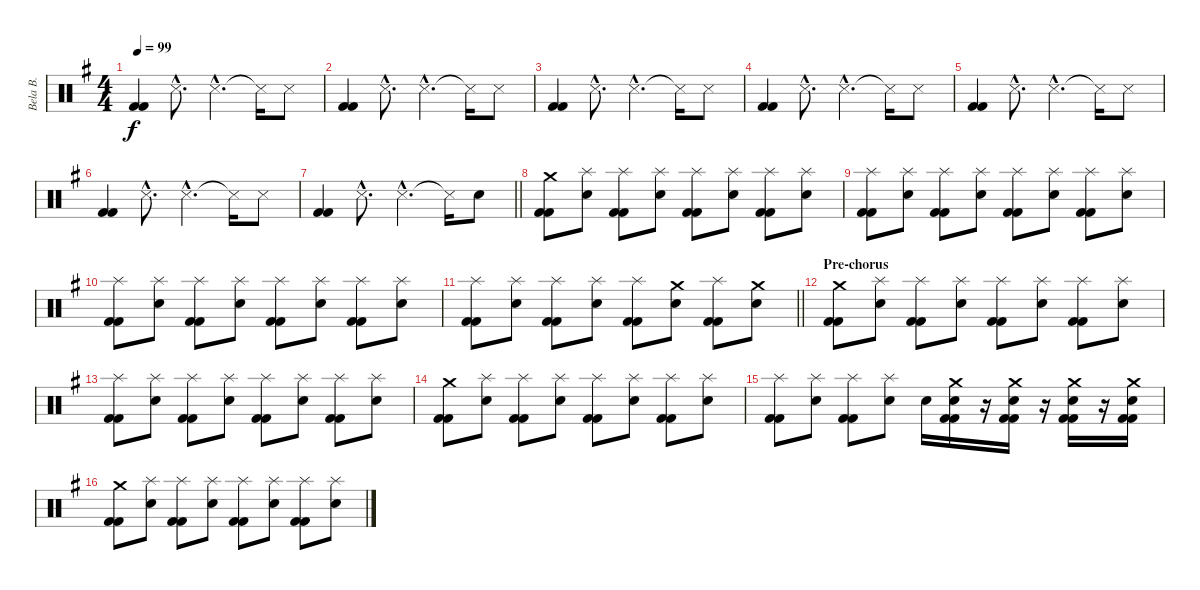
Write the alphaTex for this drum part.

\track ("Bela B." "Bela B.") {instrument percussion}
\staff {score}
\articulation defaults
\ts (4 4)
\tempo 99
\clef neutral
\ks g
("Kick (hit) 2" "Kick (hit) 2").4{dy f} "Snare (side stick) 3"{hac}.8{d} "Snare (side stick) 3"{hac}.4{d} "Snare (side stick) 3"{t}.16 "Snare (side stick) 3".8 |
("Kick (hit) 2" "Kick (hit) 2").4 "Snare (side stick) 3"{hac}.8{d} "Snare (side stick) 3"{hac}.4{d} "Snare (side stick) 3"{t}.16 "Snare (side stick) 3".8 |
("Kick (hit) 2" "Kick (hit) 2").4 "Snare (side stick) 3"{hac}.8{d} "Snare (side stick) 3"{hac}.4{d} "Snare (side stick) 3"{t}.16 "Snare (side stick) 3".8 |
("Kick (hit) 2" "Kick (hit) 2").4 "Snare (side stick) 3"{hac}.8{d} "Snare (side stick) 3"{hac}.4{d} "Snare (side stick) 3"{t}.16 "Snare (side stick) 3".8 |
("Kick (hit) 2" "Kick (hit) 2").4 "Snare (side stick) 3"{hac}.8{d} "Snare (side stick) 3"{hac}.4{d} "Snare (side stick) 3"{t}.16 "Snare (side stick) 3".8 |
("Kick (hit) 2" "Kick (hit) 2").4 "Snare (side stick) 3"{hac}.8{d} "Snare (side stick) 3"{hac}.4{d} "Snare (side stick) 3"{t}.16 "Snare (side stick) 3".8 |
\barLineRight lightlight
("Kick (hit) 2" "Kick (hit) 2").4 "Snare (side stick) 3"{hac}.8{d} "Snare (side stick) 3"{hac}.4{d} "Snare (side stick) 3"{t}.16 "Electric Snare (hit)".8 |
("Crash medium (hit)" "Kick (hit) 2" "Kick (hit) 2").8 ("Splash (hit)" "Electric Snare (hit)").8 ("Splash (hit)" "Kick (hit) 2" "Kick (hit) 2").8 ("Splash (hit)" "Electric Snare (hit)").8 ("Splash (hit)" "Kick (hit) 2" "Kick (hit) 2").8 ("Splash (hit)" "Electric Snare (hit)").8 ("Splash (hit)" "Kick (hit) 2" "Kick (hit) 2").8 ("Splash (hit)" "Electric Snare (hit)").8 |
("Splash (hit)" "Kick (hit) 2" "Kick (hit) 2").8 ("Splash (hit)" "Electric Snare (hit)").8 ("Splash (hit)" "Kick (hit) 2" "Kick (hit) 2").8 ("Splash (hit)" "Electric Snare (hit)").8 ("Splash (hit)" "Kick (hit) 2" "Kick (hit) 2").8 ("Splash (hit)" "Electric Snare (hit)").8 ("Splash (hit)" "Kick (hit) 2" "Kick (hit) 2").8 ("Splash (hit)" "Electric Snare (hit)").8 |
("Splash (hit)" "Kick (hit) 2" "Kick (hit) 2").8 ("Splash (hit)" "Electric Snare (hit)").8 ("Splash (hit)" "Kick (hit) 2" "Kick (hit) 2").8 ("Splash (hit)" "Electric Snare (hit)").8 ("Splash (hit)" "Kick (hit) 2" "Kick (hit) 2").8 ("Splash (hit)" "Electric Snare (hit)").8 ("Splash (hit)" "Kick (hit) 2" "Kick (hit) 2").8 ("Splash (hit)" "Electric Snare (hit)").8 |
\barLineRight lightlight
("Splash (hit)" "Kick (hit) 2" "Kick (hit) 2").8 ("Splash (hit)" "Electric Snare (hit)").8 ("Splash (hit)" "Kick (hit) 2" "Kick (hit) 2").8 ("Splash (hit)" "Electric Snare (hit)").8 ("Splash (hit)" "Kick (hit) 2" "Kick (hit) 2").8 ("Crash medium (hit)" "Electric Snare (hit)").8 ("Splash (hit)" "Kick (hit) 2" "Kick (hit) 2").8 ("Crash medium (hit)" "Electric Snare (hit)").8 |
\section ("" "Pre-chorus")
("Crash medium (hit)" "Kick (hit) 2" "Kick (hit) 2").8 ("Splash (hit)" "Electric Snare (hit)").8 ("Splash (hit)" "Kick (hit) 2" "Kick (hit) 2").8 ("Splash (hit)" "Electric Snare (hit)").8 ("Splash (hit)" "Kick (hit) 2" "Kick (hit) 2").8 ("Splash (hit)" "Electric Snare (hit)").8 ("Splash (hit)" "Kick (hit) 2" "Kick (hit) 2").8 ("Splash (hit)" "Electric Snare (hit)").8 |
("Splash (hit)" "Kick (hit) 2" "Kick (hit) 2").8 ("Splash (hit)" "Electric Snare (hit)").8 ("Splash (hit)" "Kick (hit) 2" "Kick (hit) 2").8 ("Splash (hit)" "Electric Snare (hit)").8 ("Splash (hit)" "Kick (hit) 2" "Kick (hit) 2").8 ("Splash (hit)" "Electric Snare (hit)").8 ("Splash (hit)" "Kick (hit) 2" "Kick (hit) 2").8 ("Splash (hit)" "Electric Snare (hit)").8 |
("Crash medium (hit)" "Kick (hit) 2" "Kick (hit) 2").8 ("Splash (hit)" "Electric Snare (hit)").8 ("Splash (hit)" "Kick (hit) 2" "Kick (hit) 2").8 ("Splash (hit)" "Electric Snare (hit)").8 ("Splash (hit)" "Kick (hit) 2" "Kick (hit) 2").8 ("Splash (hit)" "Electric Snare (hit)").8 ("Splash (hit)" "Kick (hit) 2" "Kick (hit) 2").8 ("Splash (hit)" "Electric Snare (hit)").8 |
("Splash (hit)" "Kick (hit) 2" "Kick (hit) 2").8 ("Splash (hit)" "Electric Snare (hit)").8 ("Splash (hit)" "Kick (hit) 2" "Kick (hit) 2").8 ("Splash (hit)" "Electric Snare (hit)").8 "Electric Snare (hit)".16 ("Crash medium (hit)" "Electric Snare (hit)" "Kick (hit) 2" "Kick (hit) 2").16 r.16 ("Crash medium (hit)" "Electric Snare (hit)" "Kick (hit) 2" "Kick (hit) 2").16 r.16 ("Crash medium (hit)" "Electric Snare (hit)" "Kick (hit) 2" "Kick (hit) 2").16 r.16 ("Crash medium (hit)" "Electric Snare (hit)" "Kick (hit) 2" "Kick (hit) 2").16 |
("Crash medium (hit)" "Kick (hit) 2" "Kick (hit) 2").8 ("Splash (hit)" "Electric Snare (hit)").8 ("Splash (hit)" "Kick (hit) 2" "Kick (hit) 2").8 ("Splash (hit)" "Electric Snare (hit)").8 ("Splash (hit)" "Kick (hit) 2" "Kick (hit) 2").8 ("Splash (hit)" "Electric Snare (hit)").8 ("Splash (hit)" "Kick (hit) 2" "Kick (hit) 2").8 ("Splash (hit)" "Electric Snare (hit)").8
